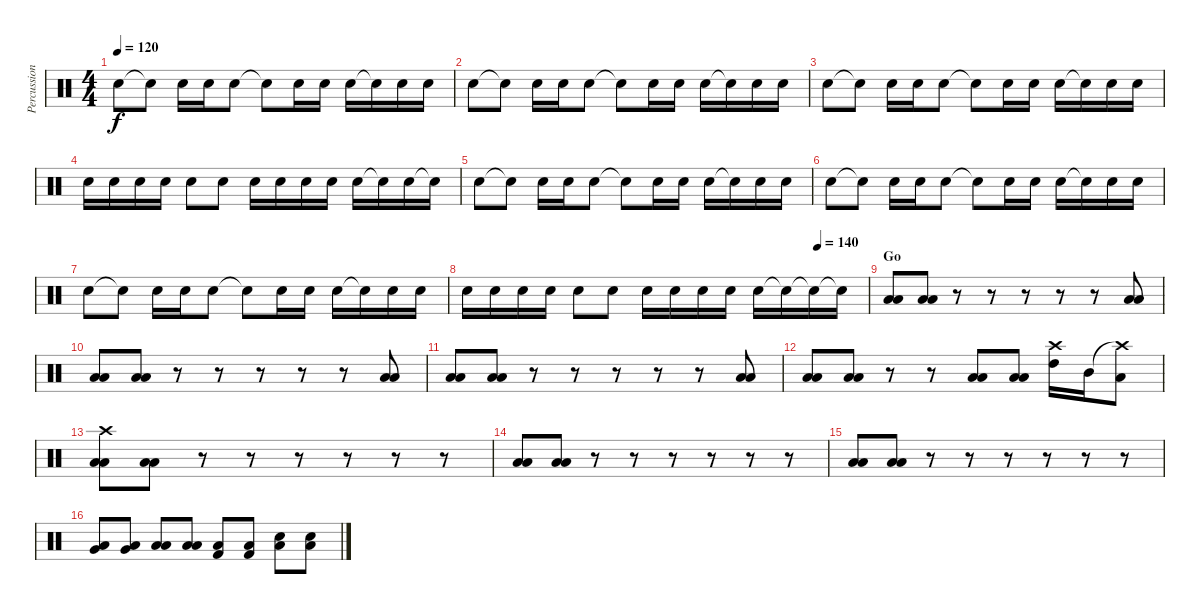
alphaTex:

\track ("Percussion" "Percussion") {instrument percussion}
\staff {score}
\articulation defaults
\ts (4 4)
\tempo 120
\clef neutral
\ks c "Snare (hit) 2".8{dy f} "Snare (hit)"{t}.8 "Snare (hit) 2".16 "Snare (hit) 2".16 "Snare (hit) 2".8 "Snare (hit)"{t}.8 "Snare (hit) 2".16 "Snare (hit) 2".16 "Snare (hit) 2".16 "Snare (hit)"{t}.16 "Snare (hit) 2".16 "Snare (hit) 2".16
|
"Snare (hit) 2".8 "Snare (hit)"{t}.8 "Snare (hit) 2".16 "Snare (hit) 2".16 "Snare (hit) 2".8 "Snare (hit)"{t}.8 "Snare (hit) 2".16 "Snare (hit) 2".16 "Snare (hit) 2".16 "Snare (hit)"{t}.16 "Snare (hit) 2".16 "Snare (hit) 2".16 |
"Snare (hit) 2".8 "Snare (hit)"{t}.8 "Snare (hit) 2".16 "Snare (hit) 2".16 "Snare (hit) 2".8 "Snare (hit)"{t}.8 "Snare (hit) 2".16 "Snare (hit) 2".16 "Snare (hit) 2".16 "Snare (hit)"{t}.16 "Snare (hit) 2".16 "Snare (hit) 2".16 |
"Snare (hit) 2".16 "Snare (hit) 2".16 "Snare (hit) 2".16 "Snare (hit) 2".16 "Snare (hit) 2".8 "Snare (hit) 2".8 "Snare (hit) 2".16 "Snare (hit) 2".16 "Snare (hit) 2".16 "Snare (hit) 2".16 "Snare (hit) 2".16 "Snare (hit) 2"{t}.16 "Snare (hit) 2".16 "Snare (hit)"{t}.16 |
"Snare (hit) 2".8 "Snare (hit)"{t}.8 "Snare (hit) 2".16 "Snare (hit) 2".16 "Snare (hit) 2".8 "Snare (hit)"{t}.8 "Snare (hit) 2".16 "Snare (hit) 2".16 "Snare (hit) 2".16 "Snare (hit)"{t}.16 "Snare (hit) 2".16 "Snare (hit) 2".16 |
"Snare (hit) 2".8 "Snare (hit)"{t}.8 "Snare (hit) 2".16 "Snare (hit) 2".16 "Snare (hit) 2".8 "Snare (hit)"{t}.8 "Snare (hit) 2".16 "Snare (hit) 2".16 "Snare (hit) 2".16 "Snare (hit)"{t}.16 "Snare (hit) 2".16 "Snare (hit) 2".16 |
"Snare (hit) 2".8 "Snare (hit)"{t}.8 "Snare (hit) 2".16 "Snare (hit) 2".16 "Snare (hit) 2".8 "Snare (hit)"{t}.8 "Snare (hit) 2".16 "Snare (hit) 2".16 "Snare (hit) 2".16 "Snare (hit)"{t}.16 "Snare (hit) 2".16 "Snare (hit) 2".16 |
\tempo (140 0.875)
"Snare (hit) 2".16 "Snare (hit) 2".16 "Snare (hit) 2".16 "Snare (hit) 2".16 "Snare (hit) 2".8 "Snare (hit) 2".8 "Snare (hit) 2".16 "Snare (hit) 2".16 "Snare (hit) 2".16 "Snare (hit) 2".16 "Snare (hit) 2".16 "Snare (hit) 2"{t}.16 "Snare (hit) 2"{t}.16 "Snare (hit)"{t}.16 |
\section ("" "Go")
("Low Tom (hit)" "Low Floor Tom (hit)").8{volume 15} ("Low Tom (hit)" "Low Floor Tom (hit)").8 r.8 r.8 r.8 r.8 r.8 ("Low Tom (hit)" "Low Floor Tom (hit)").8 |
("Low Tom (hit)" "Low Floor Tom (hit)").8{volume 15} ("Low Tom (hit)" "Low Floor Tom (hit)").8 r.8 r.8 r.8 r.8 r.8 ("Low Tom (hit)" "Low Floor Tom (hit)").8 |
("Low Tom (hit)" "Low Floor Tom (hit)").8{volume 15} ("Low Tom (hit)" "Low Floor Tom (hit)").8 r.8 r.8 r.8 r.8 r.8 ("Low Tom (hit)" "Low Floor Tom (hit)").8 |
("Low Tom (hit)" "Low Floor Tom (hit)").8 ("Low Tom (hit)" "Low Floor Tom (hit)").8 r.8 r.8 ("Low Tom (hit)" "Low Floor Tom (hit)").8 ("Low Tom (hit)" "Low Floor Tom (hit)").8 ("Crash high (hit)" "High Tom (hit)").16 "Mid Tom (hit)".16 ("Crash high (hit)"{t} "Low Tom (hit)").8 |
("Low Tom (hit)" "Low Floor Tom (hit)" "Crash high (hit)").8 ("Low Tom (hit)" "Low Floor Tom (hit)").8 r.8 r.8 r.8 r.8 r.8 r.8 |
("Low Tom (hit)" "Low Floor Tom (hit)").8 ("Low Tom (hit)" "Low Floor Tom (hit)").8 r.8 r.8 r.8 r.8 r.8 r.8 |
("Low Tom (hit)" "Low Floor Tom (hit)").8 ("Low Tom (hit)" "Low Floor Tom (hit)").8 r.8 r.8 r.8 r.8 r.8 r.8 |
("Low Tom (hit)" "Very Low Tom (hit)").8 ("Low Tom (hit)" "Very Low Tom (hit)").8 ("Low Tom (hit)" "Low Floor Tom (hit)").8 ("Low Tom (hit)" "Low Floor Tom (hit)").8 ("Low Floor Tom (hit)" "Kick (hit) 2").8 ("Low Floor Tom (hit)" "Kick (hit) 2").8 ("Low Floor Tom (hit)" "Electric Snare (hit)").8 ("Low Floor Tom (hit)" "Electric Snare (hit)").8
